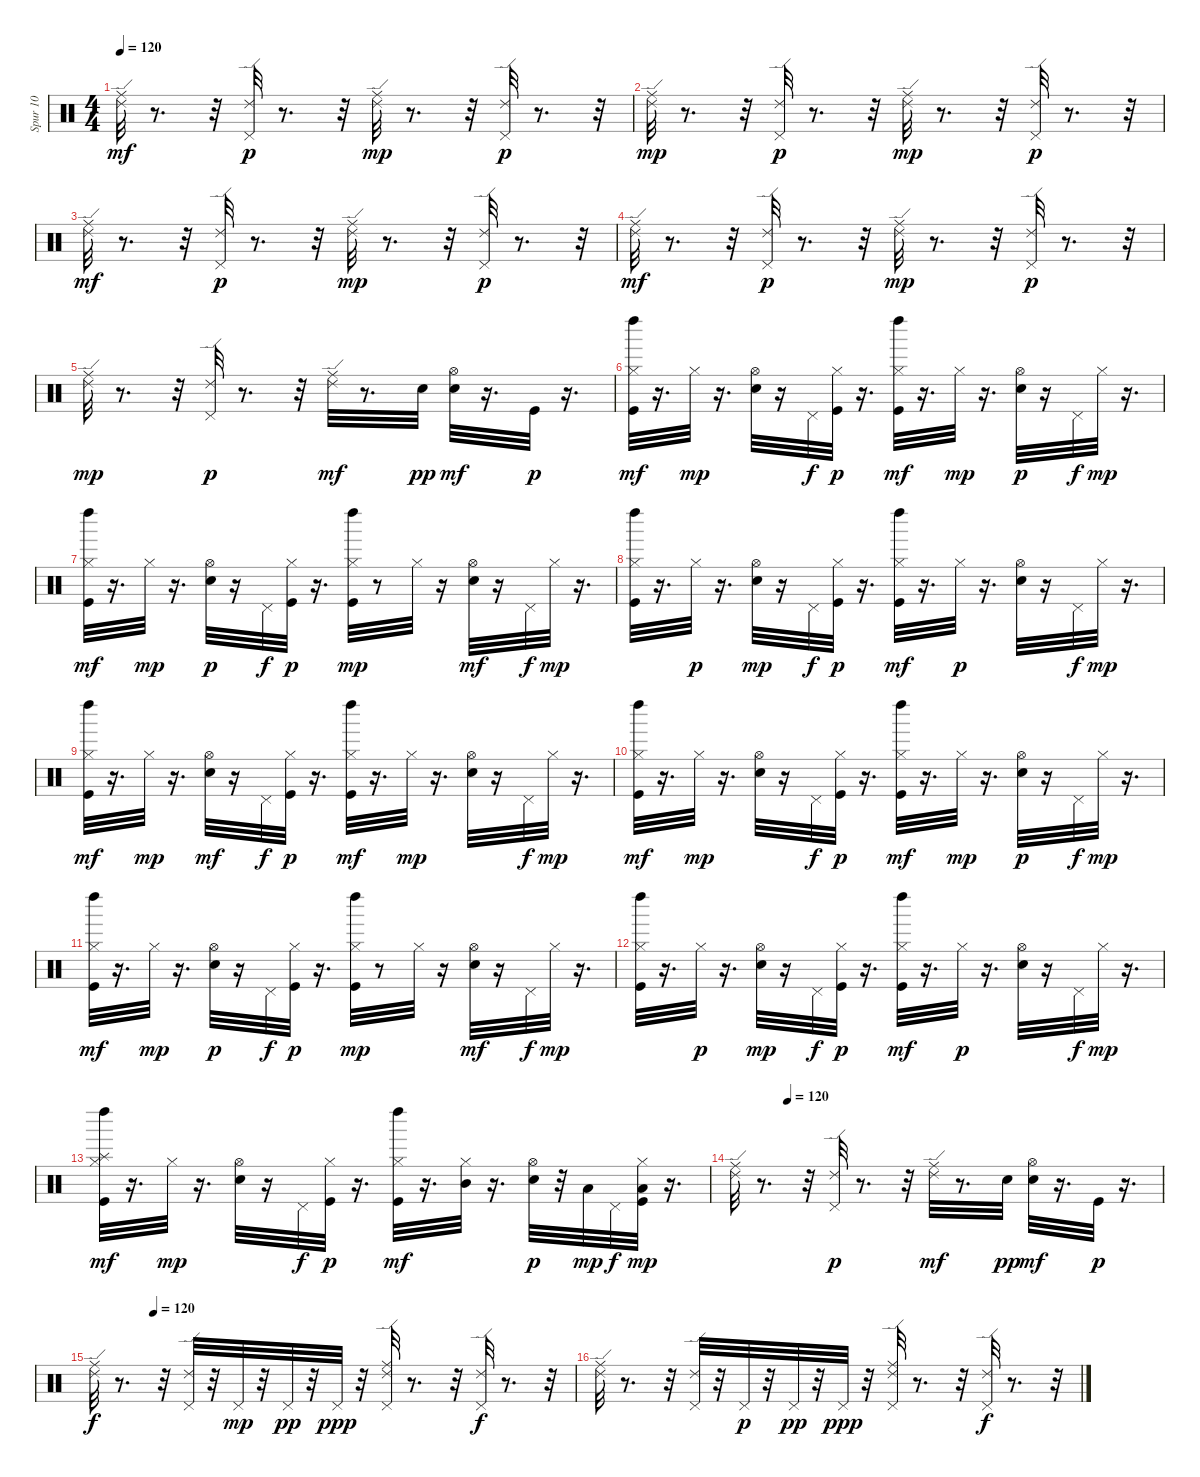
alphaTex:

\track ("Spur 10" "Spur 10") {instrument percussion}
\staff {score}
\articulation defaults
\ts (4 4)
\tempo 120
\clef neutral
\ks c
("Ride (middle)" "Ride (edge) 2").32{dy mf} r.8{d} r.32 ("Ride (edge) 2" "Pedal Hi-Hat (hit)").32{dy p} r.8{d} r.32 ("Ride (middle)" "Ride (edge) 2").32{dy mp} r.8{d} r.32 ("Ride (edge) 2" "Pedal Hi-Hat (hit)").32{dy p} r.8{d} r.32 |
("Ride (middle)" "Ride (edge) 2").32{dy mp} r.8{d} r.32 ("Ride (edge) 2" "Pedal Hi-Hat (hit)").32{dy p} r.8{d} r.32 ("Ride (middle)" "Ride (edge) 2").32{dy mp} r.8{d} r.32 ("Ride (edge) 2" "Pedal Hi-Hat (hit)").32{dy p} r.8{d} r.32 |
("Ride (middle)" "Ride (edge) 2").32{dy mf} r.8{d} r.32 ("Ride (edge) 2" "Pedal Hi-Hat (hit)").32{dy p} r.8{d} r.32 ("Ride (middle)" "Ride (edge) 2").32{dy mp} r.8{d} r.32 ("Ride (edge) 2" "Pedal Hi-Hat (hit)").32{dy p} r.8{d} r.32 |
("Ride (middle)" "Ride (edge) 2").32{dy mf} r.8{d} r.32 ("Ride (edge) 2" "Pedal Hi-Hat (hit)").32{dy p} r.8{d} r.32 ("Ride (middle)" "Ride (edge) 2").32{dy mp} r.8{d} r.32 ("Ride (edge) 2" "Pedal Hi-Hat (hit)").32{dy p} r.8{d} r.32 |
("Ride (middle)" "Ride (edge) 2").32{dy mp} r.8{d} r.32 ("Ride (edge) 2" "Pedal Hi-Hat (hit)").32{dy p} r.8{d} r.32 ("Ride (middle)" "Ride (edge) 2").32{dy mf} r.8{d} "Snare (hit) 2".32{dy pp} ("Hi-Hat (open)" "Electric Snare (hit)").32{dy mf} r.16{d} "Kick (hit)".32{dy p} r.16{d} |
("Hi-Hat (closed)" "Left Maraca (hit)" "Kick (hit)").32{dy mf} r.16{d} "Hi-Hat (closed)".32{dy mp} r.16{d} ("Hi-Hat (open)" "Electric Snare (hit)").32 r.16 "Pedal Hi-Hat (hit)".32{dy f} ("Hi-Hat (closed)" "Kick (hit)").32{dy p} r.16{d} ("Hi-Hat (closed)" "Left Maraca (hit)" "Kick (hit)").32{dy mf} r.16{d} "Hi-Hat (closed)".32{dy mp} r.16{d} ("Hi-Hat (open)" "Electric Snare (hit)").32{dy p} r.16 "Pedal Hi-Hat (hit)".32{dy f} "Hi-Hat (closed)".32{dy mp} r.16{d} |
("Hi-Hat (closed)" "Left Maraca (hit)" "Kick (hit)").32{dy mf} r.16{d} "Hi-Hat (closed)".32{dy mp} r.16{d} ("Hi-Hat (open)" "Electric Snare (hit)").32{dy p} r.16 "Pedal Hi-Hat (hit)".32{dy f} ("Hi-Hat (closed)" "Kick (hit)").32{dy p} r.16{d} ("Hi-Hat (closed)" "Left Maraca (hit)" "Kick (hit)").32{dy mp} r.8 "Hi-Hat (closed)".32 r.16 ("Hi-Hat (open)" "Electric Snare (hit)").32{dy mf} r.16 "Pedal Hi-Hat (hit)".32{dy f} "Hi-Hat (closed)".32{dy mp} r.16{d} |
("Hi-Hat (closed)" "Left Maraca (hit)" "Kick (hit)").32 r.16{d} "Hi-Hat (closed)".32{dy p} r.16{d} ("Hi-Hat (open)" "Electric Snare (hit)").32{dy mp} r.16 "Pedal Hi-Hat (hit)".32{dy f} ("Hi-Hat (closed)" "Kick (hit)").32{dy p} r.16{d} ("Hi-Hat (closed)" "Left Maraca (hit)" "Kick (hit)").32{dy mf} r.16{d} "Hi-Hat (closed)".32{dy p} r.16{d} ("Hi-Hat (open)" "Electric Snare (hit)").32 r.16 "Pedal Hi-Hat (hit)".32{dy f} "Hi-Hat (closed)".32{dy mp} r.16{d} |
("Hi-Hat (closed)" "Left Maraca (hit)" "Kick (hit)").32{dy mf} r.16{d} "Hi-Hat (closed)".32{dy mp} r.16{d} ("Hi-Hat (open)" "Electric Snare (hit)").32{dy mf} r.16 "Pedal Hi-Hat (hit)".32{dy f} ("Hi-Hat (closed)" "Kick (hit)").32{dy p} r.16{d} ("Hi-Hat (closed)" "Left Maraca (hit)" "Kick (hit)").32{dy mf} r.16{d} "Hi-Hat (closed)".32{dy mp} r.16{d} ("Hi-Hat (open)" "Electric Snare (hit)").32 r.16 "Pedal Hi-Hat (hit)".32{dy f} "Hi-Hat (closed)".32{dy mp} r.16{d} |
("Hi-Hat (closed)" "Left Maraca (hit)" "Kick (hit)").32{dy mf} r.16{d} "Hi-Hat (closed)".32{dy mp} r.16{d} ("Hi-Hat (open)" "Electric Snare (hit)").32 r.16 "Pedal Hi-Hat (hit)".32{dy f} ("Hi-Hat (closed)" "Kick (hit)").32{dy p} r.16{d} ("Hi-Hat (closed)" "Left Maraca (hit)" "Kick (hit)").32{dy mf} r.16{d} "Hi-Hat (closed)".32{dy mp} r.16{d} ("Hi-Hat (open)" "Electric Snare (hit)").32{dy p} r.16 "Pedal Hi-Hat (hit)".32{dy f} "Hi-Hat (closed)".32{dy mp} r.16{d} |
("Hi-Hat (closed)" "Left Maraca (hit)" "Kick (hit)").32{dy mf} r.16{d} "Hi-Hat (closed)".32{dy mp} r.16{d} ("Hi-Hat (open)" "Electric Snare (hit)").32{dy p} r.16 "Pedal Hi-Hat (hit)".32{dy f} ("Hi-Hat (closed)" "Kick (hit)").32{dy p} r.16{d} ("Hi-Hat (closed)" "Left Maraca (hit)" "Kick (hit)").32{dy mp} r.8 "Hi-Hat (closed)".32 r.16 ("Hi-Hat (open)" "Electric Snare (hit)").32{dy mf} r.16 "Pedal Hi-Hat (hit)".32{dy f} "Hi-Hat (closed)".32{dy mp} r.16{d} |
("Hi-Hat (closed)" "Left Maraca (hit)" "Kick (hit)").32 r.16{d} "Hi-Hat (closed)".32{dy p} r.16{d} ("Hi-Hat (open)" "Electric Snare (hit)").32{dy mp} r.16 "Pedal Hi-Hat (hit)".32{dy f} ("Hi-Hat (closed)" "Kick (hit)").32{dy p} r.16{d} ("Hi-Hat (closed)" "Left Maraca (hit)" "Kick (hit)").32{dy mf} r.16{d} "Hi-Hat (closed)".32{dy p} r.16{d} ("Hi-Hat (open)" "Electric Snare (hit)").32 r.16 "Pedal Hi-Hat (hit)".32{dy f} "Hi-Hat (closed)".32{dy mp} r.16{d} |
("Hi-Hat (closed)" "Left Maraca (hit)" "Kick (hit)" "Splash (hit)").32{dy mf} r.16{d} "Hi-Hat (closed)".32{dy mp} r.16{d} ("Hi-Hat (open)" "Electric Snare (hit)").32 r.16 "Pedal Hi-Hat (hit)".32{dy f} ("Hi-Hat (closed)" "Kick (hit)").32{dy p} r.16{d} ("Hi-Hat (closed)" "Left Maraca (hit)" "Kick (hit)").32{dy mf} r.16{d} ("Hi-Hat (closed)" "Mid Tom (hit)").32 r.16{d} ("Hi-Hat (open)" "Electric Snare (hit)").32{dy p} r.32 "Low Tom (hit)".32{dy mp} "Pedal Hi-Hat (hit)".32{dy f} ("Hi-Hat (closed)" "Low Tom (hit)" "Kick (hit)").32{dy mp} r.16{d} |
\tempo (120 0.125)
("Ride (middle)" "Ride (edge) 2").32 r.8{d} r.32 ("Ride (edge) 2" "Pedal Hi-Hat (hit)").32{dy p} r.8{d} r.32 ("Ride (middle)" "Ride (edge) 2").32{dy mf} r.8{d} "Snare (hit) 2".32{dy pp} ("Hi-Hat (open)" "Electric Snare (hit)").32{dy mf} r.16{d} "Kick (hit)".32{dy p} r.16{d} |
\tempo (120 0.125)
("Ride (edge) 2" "Ride (middle)").32{dy f} r.8{d} r.32 ("Ride (edge) 2" "Pedal Hi-Hat (hit)").32{balance 8} r.32 "Pedal Hi-Hat (hit)".32{dy mp} r.32 "Pedal Hi-Hat (hit)".32{dy pp} r.32 "Pedal Hi-Hat (hit)".32{dy ppp} r.32 ("Pedal Hi-Hat (hit)" "Ride (middle)" "Ride (edge) 2").32 r.8{d} r.32 ("Pedal Hi-Hat (hit)" "Ride (edge) 2").32{dy f} r.8{d} r.32 |
("Ride (middle)" "Ride (edge) 2").32 r.8{d} r.32 ("Ride (edge) 2" "Pedal Hi-Hat (hit)").32 r.32 "Pedal Hi-Hat (hit)".32{dy p} r.32 "Pedal Hi-Hat (hit)".32{dy pp} r.32 "Pedal Hi-Hat (hit)".32{dy ppp} r.32 ("Pedal Hi-Hat (hit)" "Ride (middle)" "Ride (edge) 2").32 r.8{d} r.32 ("Ride (edge) 2" "Pedal Hi-Hat (hit)").32{dy f} r.8{d} r.32
